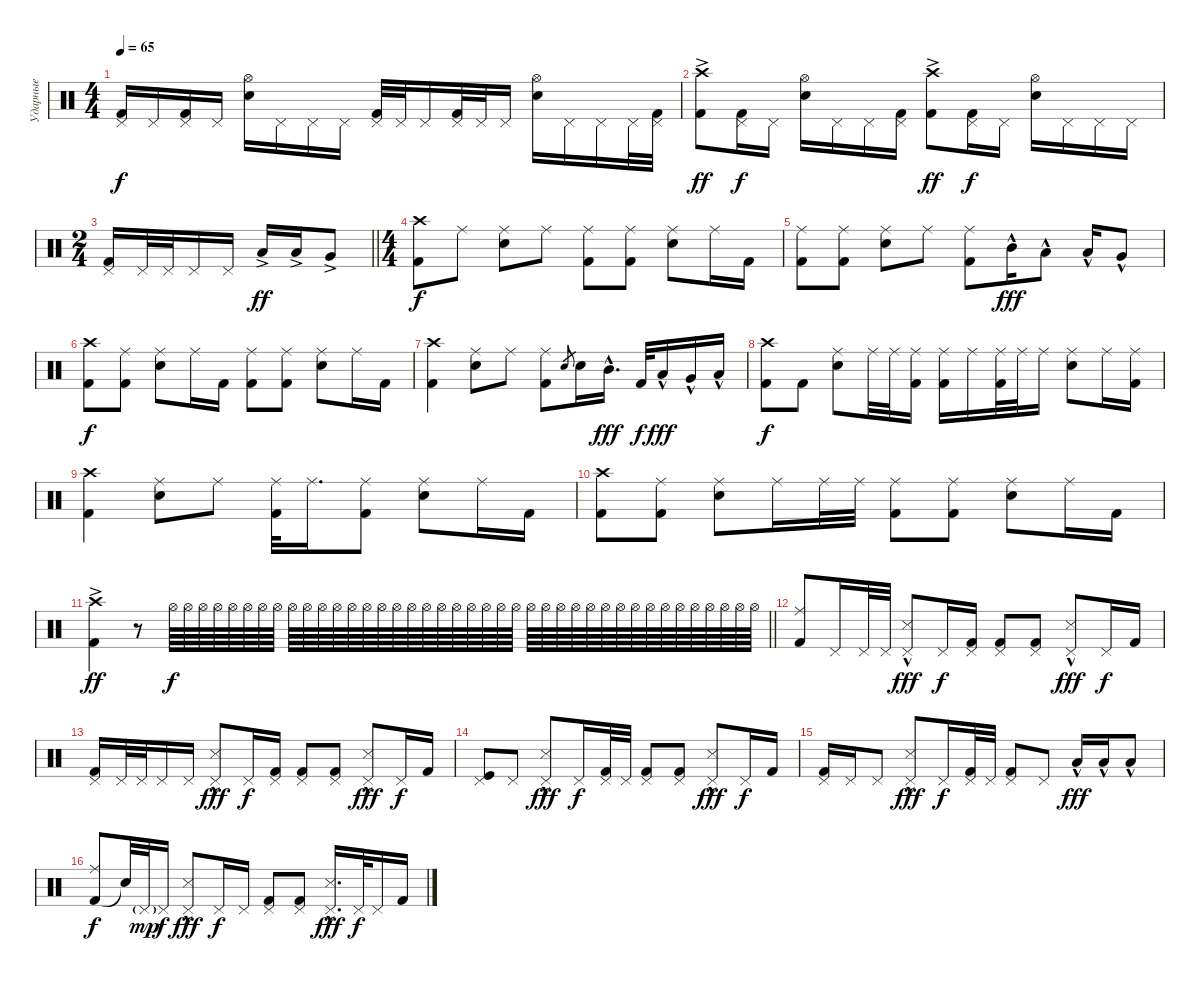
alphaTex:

\track ("Ударные" "Ударные") {instrument percussion}
\staff {score}
\articulation defaults
\ts (4 4)
\tempo 65
\clef neutral
\ks c
("Kick (hit) 2" "Pedal Hi-Hat (hit)").16{dy f} "Pedal Hi-Hat (hit)".16 ("Kick (hit) 2" "Pedal Hi-Hat (hit)").16 "Pedal Hi-Hat (hit)".16 ("Snare (hit) 2" "Hi-Hat (open)").16 "Pedal Hi-Hat (hit)".16 "Pedal Hi-Hat (hit)".16 "Pedal Hi-Hat (hit)".16 ("Kick (hit) 2" "Pedal Hi-Hat (hit)").32 "Pedal Hi-Hat (hit)".32 "Pedal Hi-Hat (hit)".16 ("Kick (hit) 2" "Pedal Hi-Hat (hit)").32 "Pedal Hi-Hat (hit)".32 "Pedal Hi-Hat (hit)".16 ("Snare (hit) 2" "Hi-Hat (open)").16 "Pedal Hi-Hat (hit)".16 "Pedal Hi-Hat (hit)".16 "Pedal Hi-Hat (hit)".32 ("Kick (hit) 2" "Pedal Hi-Hat (hit)").32 |
("Kick (hit) 2" "Crash high (hit)"{ac}).8{dy ff} ("Kick (hit) 2" "Pedal Hi-Hat (hit)").16{dy f} "Pedal Hi-Hat (hit)".16 ("Snare (hit) 2" "Hi-Hat (open)").16 "Pedal Hi-Hat (hit)".16 "Pedal Hi-Hat (hit)".16 ("Kick (hit) 2" "Pedal Hi-Hat (hit)").16 ("Kick (hit) 2" "Crash high (hit)"{ac}).8{dy ff} ("Kick (hit) 2" "Pedal Hi-Hat (hit)").16{dy f} "Pedal Hi-Hat (hit)".16 ("Snare (hit) 2" "Hi-Hat (open)").16 "Pedal Hi-Hat (hit)".16 "Pedal Hi-Hat (hit)".16 "Pedal Hi-Hat (hit)".16 |
\ts (2 4)
\barLineRight lightlight
("Kick (hit) 2" "Pedal Hi-Hat (hit)").16 "Pedal Hi-Hat (hit)".32 "Pedal Hi-Hat (hit)".32 "Pedal Hi-Hat (hit)".16 "Pedal Hi-Hat (hit)".16 "Low Tom (hit)"{ac}.16{dy ff} "Low Tom (hit)"{ac}.16 "Very Low Tom (hit)"{ac}.8 |
\ts (4 4)
("Kick (hit) 2" "Crash high (hit)").8{dy f} "Ride (middle)".8 ("Snare (hit) 2" "Ride (middle)").8 "Ride (middle)".8 ("Kick (hit) 2" "Ride (middle)").8 ("Kick (hit) 2" "Ride (middle)").8 ("Snare (hit) 2" "Ride (middle)").8 "Ride (middle)".16 "Kick (hit) 2".16 |
("Kick (hit) 2" "Ride (middle)").8 ("Kick (hit) 2" "Ride (middle)").8 ("Snare (hit) 2" "Ride (middle)").8 "Ride (middle)".8 ("Kick (hit) 2" "Ride (middle)").8 "Mid Tom (hit)"{hac}.16{dy fff} "Low Tom (hit)"{hac}.8 "Low Tom (hit)"{hac}.16 "Very Low Tom (hit)"{hac}.8 |
("Kick (hit) 2" "Crash high (hit)").8{dy f} ("Kick (hit) 2" "Ride (middle)").8 ("Snare (hit) 2" "Ride (middle)").8 "Ride (middle)".16 "Kick (hit) 2".16 ("Kick (hit) 2" "Ride (middle)").8 ("Kick (hit) 2" "Ride (middle)").8 ("Snare (hit) 2" "Ride (middle)").8 "Ride (middle)".16 "Kick (hit) 2".16 |
("Kick (hit) 2" "Crash high (hit)").4 ("Snare (hit) 2" "Ride (middle)").8 "Ride (middle)".8 ("Kick (hit) 2" "Ride (middle)").8 "Snare (hit) 2".8{gr} "Snare (hit) 2".16 "Mid Tom (hit)"{hac}.16{d dy fff} "Kick (hit) 2".32{dy f} "Low Tom (hit)"{hac}.16{dy fff} "Very Low Tom (hit)"{hac}.16 "Low Floor Tom (hit)"{hac}.16 |
("Kick (hit) 2" "Crash high (hit)").8{dy f} "Kick (hit) 2".8 ("Snare (hit) 2" "Ride (middle)").8 "Ride (middle)".32 "Ride (middle)".32 ("Kick (hit) 2" "Ride (middle)").16 ("Kick (hit) 2" "Ride (middle)").16 "Ride (middle)".16 ("Kick (hit) 2" "Ride (middle)").32 "Ride (middle)".32 "Ride (middle)".16 ("Snare (hit) 2" "Ride (middle)").8 "Ride (middle)".16 ("Kick (hit) 2" "Ride (middle)").16 |
("Kick (hit) 2" "Crash high (hit)").4 ("Snare (hit) 2" "Ride (middle)").8 "Ride (middle)".8 ("Kick (hit) 2" "Ride (middle)").32 "Ride (middle)".16{d} ("Kick (hit) 2" "Ride (middle)").8 ("Snare (hit) 2" "Ride (middle)").8 "Ride (middle)".16 "Kick (hit) 2".16 |
("Kick (hit) 2" "Crash high (hit)").8 ("Kick (hit) 2" "Ride (middle)").8 ("Snare (hit) 2" "Ride (middle)").8 "Ride (middle)".16 "Ride (middle)".32 "Ride (middle)".32 ("Kick (hit) 2" "Ride (middle)").8 ("Kick (hit) 2" "Ride (middle)").8 ("Snare (hit) 2" "Ride (middle)").8 "Ride (middle)".16 "Kick (hit) 2".16 |
\barLineRight lightlight
("Kick (hit) 2" "Crash high (hit)"{ac}).4{dy ff} r.8{volume 3} "Hi-Hat (open)".64{dy f volume 11} "Hi-Hat (open)".64 "Hi-Hat (open)".64 "Hi-Hat (open)".64 "Hi-Hat (open)".64 "Hi-Hat (open)".64 "Hi-Hat (open)".64 "Hi-Hat (open)".64 "Hi-Hat (open)".64 "Hi-Hat (open)".64 "Hi-Hat (open)".64 "Hi-Hat (open)".64 "Hi-Hat (open)".64 "Hi-Hat (open)".64 "Hi-Hat (open)".64 "Hi-Hat (open)".64 "Hi-Hat (open)".64 "Hi-Hat (open)".64 "Hi-Hat (open)".64 "Hi-Hat (open)".64 "Hi-Hat (open)".64 "Hi-Hat (open)".64 "Hi-Hat (open)".64 "Hi-Hat (open)".64 "Hi-Hat (open)".64 "Hi-Hat (open)".64 "Hi-Hat (open)".64 "Hi-Hat (open)".64 "Hi-Hat (open)".64 "Hi-Hat (open)".64 "Hi-Hat (open)".64 "Hi-Hat (open)".64 "Hi-Hat (open)".64 "Hi-Hat (open)".64 "Hi-Hat (open)".64 "Hi-Hat (open)".64 "Hi-Hat (open)".64 "Hi-Hat (open)".64 "Hi-Hat (open)".64 "Hi-Hat (open)".64 |
("Kick (hit) 2" "Ride (middle)").8 "Pedal Hi-Hat (hit)".16 "Pedal Hi-Hat (hit)".32 "Pedal Hi-Hat (hit)".32 ("Snare (side stick) 3"{hac} "Pedal Hi-Hat (hit)").8{dy fff} "Pedal Hi-Hat (hit)".16{dy f} ("Kick (hit) 2" "Pedal Hi-Hat (hit)").16 ("Kick (hit) 2" "Pedal Hi-Hat (hit)").8 ("Kick (hit) 2" "Pedal Hi-Hat (hit)").8 ("Snare (side stick) 3"{hac} "Pedal Hi-Hat (hit)").8{dy fff} "Pedal Hi-Hat (hit)".16{dy f} "Kick (hit) 2".16 |
("Kick (hit) 2" "Pedal Hi-Hat (hit)").16 "Pedal Hi-Hat (hit)".32 "Pedal Hi-Hat (hit)".32 "Pedal Hi-Hat (hit)".16 "Pedal Hi-Hat (hit)".16 ("Snare (side stick) 3"{hac} "Pedal Hi-Hat (hit)").8{dy fff} "Pedal Hi-Hat (hit)".16{dy f} ("Kick (hit) 2" "Pedal Hi-Hat (hit)").16 ("Kick (hit) 2" "Pedal Hi-Hat (hit)").8 ("Kick (hit) 2" "Pedal Hi-Hat (hit)").8 ("Snare (side stick) 3"{hac} "Pedal Hi-Hat (hit)").8{dy fff} "Pedal Hi-Hat (hit)".16{dy f} "Kick (hit) 2".16 |
("Kick (hit)" "Pedal Hi-Hat (hit)").8 "Pedal Hi-Hat (hit)".8 ("Snare (side stick) 3"{hac} "Pedal Hi-Hat (hit)").8{dy fff} "Pedal Hi-Hat (hit)".16{dy f} ("Kick (hit) 2" "Pedal Hi-Hat (hit)").32 "Pedal Hi-Hat (hit)".32 ("Kick (hit) 2" "Pedal Hi-Hat (hit)").8 ("Kick (hit) 2" "Pedal Hi-Hat (hit)").8 ("Snare (side stick) 3"{hac} "Pedal Hi-Hat (hit)").8{dy fff} "Pedal Hi-Hat (hit)".16{dy f} "Kick (hit) 2".16 |
("Kick (hit) 2" "Pedal Hi-Hat (hit)").16 "Pedal Hi-Hat (hit)".16 "Pedal Hi-Hat (hit)".8 ("Snare (side stick) 3"{hac} "Pedal Hi-Hat (hit)").8{dy fff} "Pedal Hi-Hat (hit)".16{dy f} ("Kick (hit) 2" "Pedal Hi-Hat (hit)").32 "Pedal Hi-Hat (hit)".32 ("Kick (hit) 2" "Pedal Hi-Hat (hit)").8 "Pedal Hi-Hat (hit)".8 "Low Tom (hit)"{hac}.16{dy fff} "Low Tom (hit)"{hac}.16 "Low Tom (hit)"{hac}.8 |
("Kick (hit) 2" "Ride (middle)").8{dy f} "Snare (hit)"{t}.32 "Pedal Hi-Hat (hit)"{g}.32{dy mp} "Pedal Hi-Hat (hit)".16{dy f} ("Snare (side stick) 3"{hac} "Pedal Hi-Hat (hit)").8{dy fff} "Pedal Hi-Hat (hit)".16{dy f} "Pedal Hi-Hat (hit)".16 ("Kick (hit) 2" "Pedal Hi-Hat (hit)").8 ("Kick (hit) 2" "Pedal Hi-Hat (hit)").8 ("Snare (side stick) 3"{hac} "Pedal Hi-Hat (hit)").16{d dy fff} "Pedal Hi-Hat (hit)".32{dy f} "Pedal Hi-Hat (hit)".16 "Kick (hit) 2".16
